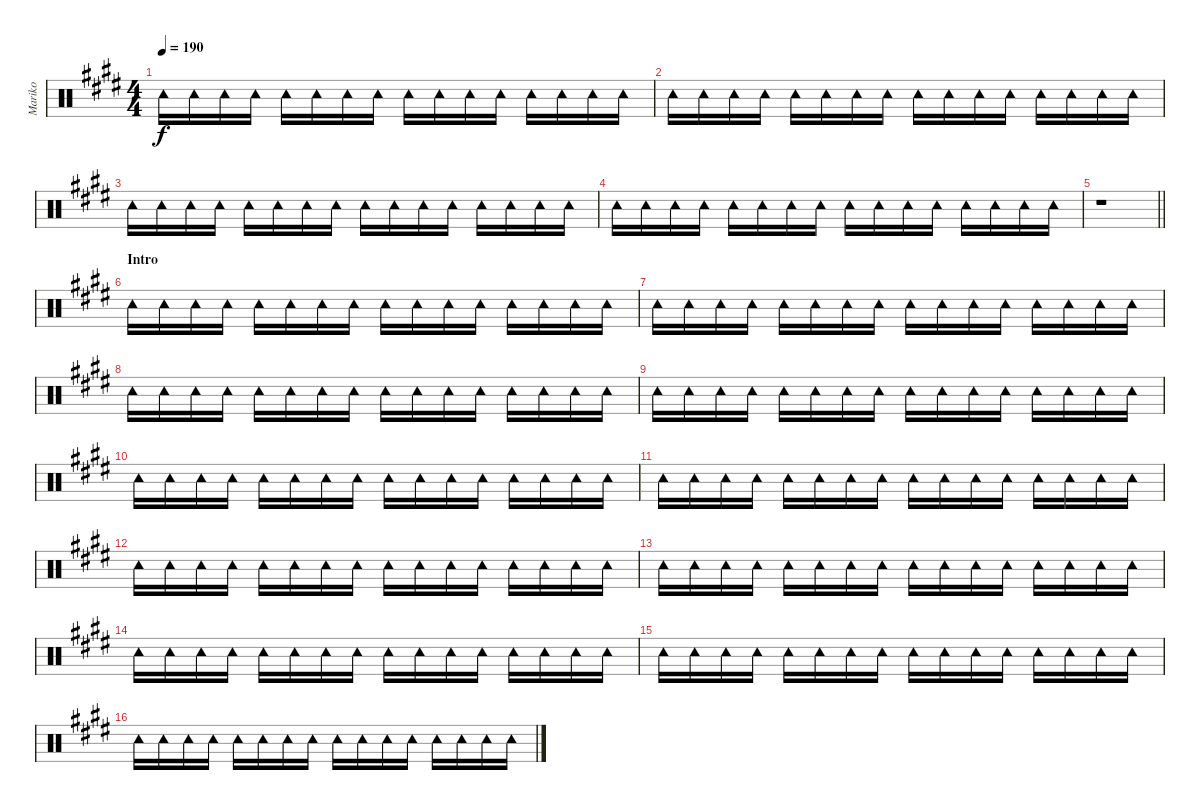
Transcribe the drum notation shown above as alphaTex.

\track ("Mariko" "Mariko") {mute instrument percussion}
\staff {score}
\articulation defaults
\ts (4 4)
\tempo 190
\clef neutral
\ks e "Tambourine (hit)".16{dy f} "Tambourine (hit)".16 "Tambourine (hit)".16 "Tambourine (hit)".16 "Tambourine (hit)".16 "Tambourine (hit)".16 "Tambourine (hit)".16 "Tambourine (hit)".16 "Tambourine (hit)".16 "Tambourine (hit)".16 "Tambourine (hit)".16 "Tambourine (hit)".16 "Tambourine (hit)".16 "Tambourine (hit)".16 "Tambourine (hit)".16 "Tambourine (hit)".16
|
"Tambourine (hit)".16 "Tambourine (hit)".16 "Tambourine (hit)".16 "Tambourine (hit)".16 "Tambourine (hit)".16 "Tambourine (hit)".16 "Tambourine (hit)".16 "Tambourine (hit)".16 "Tambourine (hit)".16 "Tambourine (hit)".16 "Tambourine (hit)".16 "Tambourine (hit)".16 "Tambourine (hit)".16 "Tambourine (hit)".16 "Tambourine (hit)".16 "Tambourine (hit)".16 |
"Tambourine (hit)".16 "Tambourine (hit)".16 "Tambourine (hit)".16 "Tambourine (hit)".16 "Tambourine (hit)".16 "Tambourine (hit)".16 "Tambourine (hit)".16 "Tambourine (hit)".16 "Tambourine (hit)".16 "Tambourine (hit)".16 "Tambourine (hit)".16 "Tambourine (hit)".16 "Tambourine (hit)".16 "Tambourine (hit)".16 "Tambourine (hit)".16 "Tambourine (hit)".16 |
"Tambourine (hit)".16 "Tambourine (hit)".16 "Tambourine (hit)".16 "Tambourine (hit)".16 "Tambourine (hit)".16 "Tambourine (hit)".16 "Tambourine (hit)".16 "Tambourine (hit)".16 "Tambourine (hit)".16 "Tambourine (hit)".16 "Tambourine (hit)".16 "Tambourine (hit)".16 "Tambourine (hit)".16 "Tambourine (hit)".16 "Tambourine (hit)".16 "Tambourine (hit)".16 |
\barLineRight lightlight
r.1 |
\section ("" "Intro")
"Tambourine (hit)".16 "Tambourine (hit)".16 "Tambourine (hit)".16 "Tambourine (hit)".16 "Tambourine (hit)".16 "Tambourine (hit)".16 "Tambourine (hit)".16 "Tambourine (hit)".16 "Tambourine (hit)".16 "Tambourine (hit)".16 "Tambourine (hit)".16 "Tambourine (hit)".16 "Tambourine (hit)".16 "Tambourine (hit)".16 "Tambourine (hit)".16 "Tambourine (hit)".16 |
"Tambourine (hit)".16 "Tambourine (hit)".16 "Tambourine (hit)".16 "Tambourine (hit)".16 "Tambourine (hit)".16 "Tambourine (hit)".16 "Tambourine (hit)".16 "Tambourine (hit)".16 "Tambourine (hit)".16 "Tambourine (hit)".16 "Tambourine (hit)".16 "Tambourine (hit)".16 "Tambourine (hit)".16 "Tambourine (hit)".16 "Tambourine (hit)".16 "Tambourine (hit)".16 |
"Tambourine (hit)".16 "Tambourine (hit)".16 "Tambourine (hit)".16 "Tambourine (hit)".16 "Tambourine (hit)".16 "Tambourine (hit)".16 "Tambourine (hit)".16 "Tambourine (hit)".16 "Tambourine (hit)".16 "Tambourine (hit)".16 "Tambourine (hit)".16 "Tambourine (hit)".16 "Tambourine (hit)".16 "Tambourine (hit)".16 "Tambourine (hit)".16 "Tambourine (hit)".16 |
"Tambourine (hit)".16 "Tambourine (hit)".16 "Tambourine (hit)".16 "Tambourine (hit)".16 "Tambourine (hit)".16 "Tambourine (hit)".16 "Tambourine (hit)".16 "Tambourine (hit)".16 "Tambourine (hit)".16 "Tambourine (hit)".16 "Tambourine (hit)".16 "Tambourine (hit)".16 "Tambourine (hit)".16 "Tambourine (hit)".16 "Tambourine (hit)".16 "Tambourine (hit)".16 |
"Tambourine (hit)".16 "Tambourine (hit)".16 "Tambourine (hit)".16 "Tambourine (hit)".16 "Tambourine (hit)".16 "Tambourine (hit)".16 "Tambourine (hit)".16 "Tambourine (hit)".16 "Tambourine (hit)".16 "Tambourine (hit)".16 "Tambourine (hit)".16 "Tambourine (hit)".16 "Tambourine (hit)".16 "Tambourine (hit)".16 "Tambourine (hit)".16 "Tambourine (hit)".16 |
"Tambourine (hit)".16 "Tambourine (hit)".16 "Tambourine (hit)".16 "Tambourine (hit)".16 "Tambourine (hit)".16 "Tambourine (hit)".16 "Tambourine (hit)".16 "Tambourine (hit)".16 "Tambourine (hit)".16 "Tambourine (hit)".16 "Tambourine (hit)".16 "Tambourine (hit)".16 "Tambourine (hit)".16 "Tambourine (hit)".16 "Tambourine (hit)".16 "Tambourine (hit)".16 |
"Tambourine (hit)".16 "Tambourine (hit)".16 "Tambourine (hit)".16 "Tambourine (hit)".16 "Tambourine (hit)".16 "Tambourine (hit)".16 "Tambourine (hit)".16 "Tambourine (hit)".16 "Tambourine (hit)".16 "Tambourine (hit)".16 "Tambourine (hit)".16 "Tambourine (hit)".16 "Tambourine (hit)".16 "Tambourine (hit)".16 "Tambourine (hit)".16 "Tambourine (hit)".16 |
"Tambourine (hit)".16 "Tambourine (hit)".16 "Tambourine (hit)".16 "Tambourine (hit)".16 "Tambourine (hit)".16 "Tambourine (hit)".16 "Tambourine (hit)".16 "Tambourine (hit)".16 "Tambourine (hit)".16 "Tambourine (hit)".16 "Tambourine (hit)".16 "Tambourine (hit)".16 "Tambourine (hit)".16 "Tambourine (hit)".16 "Tambourine (hit)".16 "Tambourine (hit)".16 |
"Tambourine (hit)".16 "Tambourine (hit)".16 "Tambourine (hit)".16 "Tambourine (hit)".16 "Tambourine (hit)".16 "Tambourine (hit)".16 "Tambourine (hit)".16 "Tambourine (hit)".16 "Tambourine (hit)".16 "Tambourine (hit)".16 "Tambourine (hit)".16 "Tambourine (hit)".16 "Tambourine (hit)".16 "Tambourine (hit)".16 "Tambourine (hit)".16 "Tambourine (hit)".16 |
"Tambourine (hit)".16 "Tambourine (hit)".16 "Tambourine (hit)".16 "Tambourine (hit)".16 "Tambourine (hit)".16 "Tambourine (hit)".16 "Tambourine (hit)".16 "Tambourine (hit)".16 "Tambourine (hit)".16 "Tambourine (hit)".16 "Tambourine (hit)".16 "Tambourine (hit)".16 "Tambourine (hit)".16 "Tambourine (hit)".16 "Tambourine (hit)".16 "Tambourine (hit)".16 |
"Tambourine (hit)".16 "Tambourine (hit)".16 "Tambourine (hit)".16 "Tambourine (hit)".16 "Tambourine (hit)".16 "Tambourine (hit)".16 "Tambourine (hit)".16 "Tambourine (hit)".16 "Tambourine (hit)".16 "Tambourine (hit)".16 "Tambourine (hit)".16 "Tambourine (hit)".16 "Tambourine (hit)".16 "Tambourine (hit)".16 "Tambourine (hit)".16 "Tambourine (hit)".16
